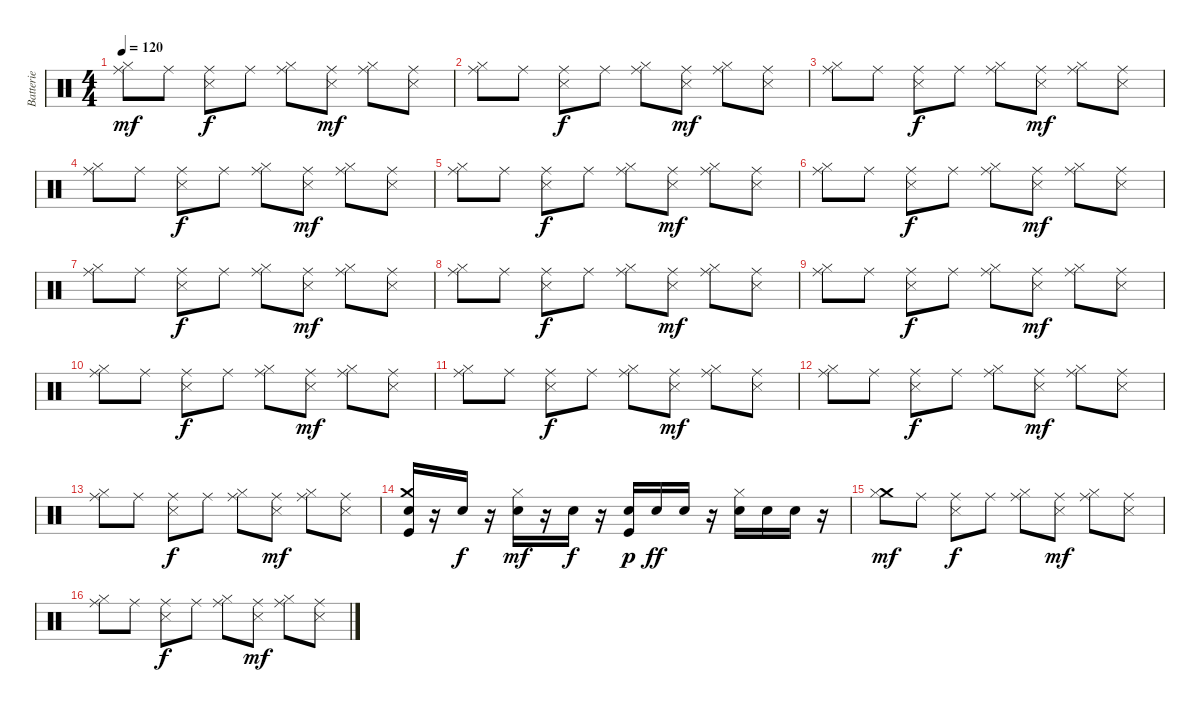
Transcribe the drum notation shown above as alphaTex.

\track ("Batterie" "Batterie") {instrument percussion}
\staff {score}
\articulation defaults
\ts (4 4)
\tempo 120
\clef neutral
\ks c
("Ride (middle)" "Hi-Hat (closed)").8{dy mf} "Ride (middle)".8 ("Ride (middle)" "Snare (side stick) 3").8{dy f} "Ride (middle)".8 ("Ride (middle)" "Hi-Hat (closed)").8 ("Ride (middle)" "Snare (side stick) 3").8{dy mf} ("Ride (middle)" "Hi-Hat (closed)").8 ("Ride (middle)" "Snare (side stick) 3").8 |
("Ride (middle)" "Hi-Hat (closed)").8 "Ride (middle)".8 ("Ride (middle)" "Snare (side stick) 3").8{dy f} "Ride (middle)".8 ("Ride (middle)" "Hi-Hat (closed)").8 ("Ride (middle)" "Snare (side stick) 3").8{dy mf} ("Ride (middle)" "Hi-Hat (closed)").8 ("Ride (middle)" "Snare (side stick) 3").8 |
("Ride (middle)" "Hi-Hat (closed)").8 "Ride (middle)".8 ("Ride (middle)" "Snare (side stick) 3").8{dy f} "Ride (middle)".8 ("Ride (middle)" "Hi-Hat (closed)").8 ("Ride (middle)" "Snare (side stick) 3").8{dy mf} ("Ride (middle)" "Hi-Hat (closed)").8 ("Ride (middle)" "Snare (side stick) 3").8 |
("Ride (middle)" "Hi-Hat (closed)").8 "Ride (middle)".8 ("Ride (middle)" "Snare (side stick) 3").8{dy f} "Ride (middle)".8 ("Ride (middle)" "Hi-Hat (closed)").8 ("Ride (middle)" "Snare (side stick) 3").8{dy mf} ("Ride (middle)" "Hi-Hat (closed)").8 ("Ride (middle)" "Snare (side stick) 3").8 |
("Ride (middle)" "Hi-Hat (closed)").8 "Ride (middle)".8 ("Ride (middle)" "Snare (side stick) 3").8{dy f} "Ride (middle)".8 ("Ride (middle)" "Hi-Hat (closed)").8 ("Ride (middle)" "Snare (side stick) 3").8{dy mf} ("Ride (middle)" "Hi-Hat (closed)").8 ("Ride (middle)" "Snare (side stick) 3").8 |
("Ride (middle)" "Hi-Hat (closed)").8 "Ride (middle)".8 ("Ride (middle)" "Snare (side stick) 3").8{dy f} "Ride (middle)".8 ("Ride (middle)" "Hi-Hat (closed)").8 ("Ride (middle)" "Snare (side stick) 3").8{dy mf} ("Ride (middle)" "Hi-Hat (closed)").8 ("Ride (middle)" "Snare (side stick) 3").8 |
("Ride (middle)" "Hi-Hat (closed)").8 "Ride (middle)".8 ("Ride (middle)" "Snare (side stick) 3").8{dy f} "Ride (middle)".8 ("Ride (middle)" "Hi-Hat (closed)").8 ("Ride (middle)" "Snare (side stick) 3").8{dy mf} ("Ride (middle)" "Hi-Hat (closed)").8 ("Ride (middle)" "Snare (side stick) 3").8 |
("Ride (middle)" "Hi-Hat (closed)").8 "Ride (middle)".8 ("Ride (middle)" "Snare (side stick) 3").8{dy f} "Ride (middle)".8 ("Ride (middle)" "Hi-Hat (closed)").8 ("Ride (middle)" "Snare (side stick) 3").8{dy mf} ("Ride (middle)" "Hi-Hat (closed)").8 ("Ride (middle)" "Snare (side stick) 3").8 |
("Ride (middle)" "Hi-Hat (closed)").8 "Ride (middle)".8 ("Ride (middle)" "Snare (side stick) 3").8{dy f} "Ride (middle)".8 ("Ride (middle)" "Hi-Hat (closed)").8 ("Ride (middle)" "Snare (side stick) 3").8{dy mf} ("Ride (middle)" "Hi-Hat (closed)").8 ("Ride (middle)" "Snare (side stick) 3").8 |
("Ride (middle)" "Hi-Hat (closed)").8 "Ride (middle)".8 ("Ride (middle)" "Snare (side stick) 3").8{dy f} "Ride (middle)".8 ("Ride (middle)" "Hi-Hat (closed)").8 ("Ride (middle)" "Snare (side stick) 3").8{dy mf} ("Ride (middle)" "Hi-Hat (closed)").8 ("Ride (middle)" "Snare (side stick) 3").8 |
("Ride (middle)" "Hi-Hat (closed)").8 "Ride (middle)".8 ("Ride (middle)" "Snare (side stick) 3").8{dy f} "Ride (middle)".8 ("Ride (middle)" "Hi-Hat (closed)").8 ("Ride (middle)" "Snare (side stick) 3").8{dy mf} ("Ride (middle)" "Hi-Hat (closed)").8 ("Ride (middle)" "Snare (side stick) 3").8 |
("Ride (middle)" "Hi-Hat (closed)").8 "Ride (middle)".8 ("Ride (middle)" "Snare (side stick) 3").8{dy f} "Ride (middle)".8 ("Ride (middle)" "Hi-Hat (closed)").8 ("Ride (middle)" "Snare (side stick) 3").8{dy mf} ("Ride (middle)" "Hi-Hat (closed)").8 ("Ride (middle)" "Snare (side stick) 3").8 |
("Ride (middle)" "Hi-Hat (closed)").8 "Ride (middle)".8 ("Ride (middle)" "Snare (side stick) 3").8{dy f} "Ride (middle)".8 ("Ride (middle)" "Hi-Hat (closed)").8 ("Ride (middle)" "Snare (side stick) 3").8{dy mf} ("Ride (middle)" "Hi-Hat (closed)").8 ("Ride (middle)" "Snare (side stick) 3").8 |
("Kick (hit)" "Crash medium (hit)" "Snare (hit) 2").16 r.16 "Snare (hit) 2".16{dy f} r.16 ("Hi-Hat (closed)" "Snare (hit) 2").16{dy mf} r.16 "Snare (hit) 2".16{dy f} r.16 ("Kick (hit)" "Snare (hit) 2").16{dy p} "Snare (hit) 2".16{dy ff} "Snare (hit) 2".16 r.16 ("Hi-Hat (closed)" "Snare (hit) 2").16 "Snare (hit) 2".16 "Snare (hit) 2".16 r.16 |
("Crash medium (hit)" "Hi-Hat (closed)").8{dy mf} "Ride (middle)".8 ("Ride (middle)" "Snare (side stick) 3").8{dy f} "Ride (middle)".8 ("Ride (middle)" "Hi-Hat (closed)").8 ("Ride (middle)" "Snare (side stick) 3").8{dy mf} ("Ride (middle)" "Hi-Hat (closed)").8 ("Ride (middle)" "Snare (side stick) 3").8 |
("Ride (middle)" "Hi-Hat (closed)").8 "Ride (middle)".8 ("Ride (middle)" "Snare (side stick) 3").8{dy f} "Ride (middle)".8 ("Ride (middle)" "Hi-Hat (closed)").8 ("Ride (middle)" "Snare (side stick) 3").8{dy mf} ("Ride (middle)" "Hi-Hat (closed)").8 ("Ride (middle)" "Snare (side stick) 3").8
